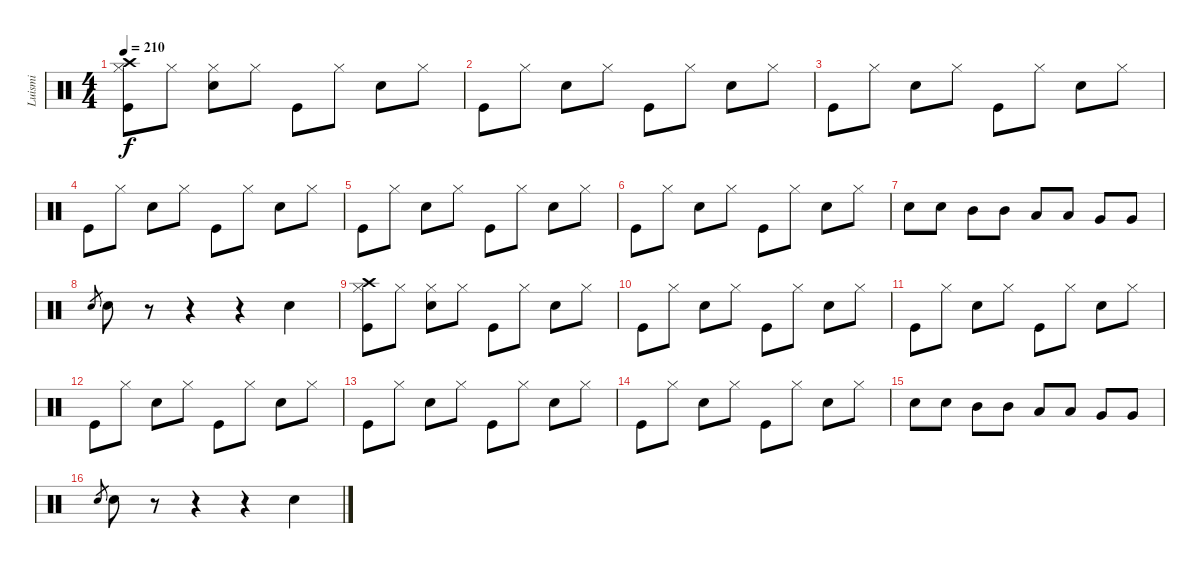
\track ("Luismi" "Luismi") {instrument percussion}
\staff {score}
\articulation defaults
\ts (4 4)
\tempo 210
\clef neutral
\ks c
("Kick (hit)" "Crash high (hit)" "Hi-Hat (closed)").8{dy f} "Hi-Hat (closed)".8 ("Snare (hit) 2" "Hi-Hat (closed)").8 "Hi-Hat (closed)".8 "Kick (hit)".8 "Hi-Hat (closed)".8 "Snare (hit) 2".8 "Hi-Hat (closed)".8 |
"Kick (hit)".8 "Hi-Hat (closed)".8 "Snare (hit) 2".8 "Hi-Hat (closed)".8 "Kick (hit)".8 "Hi-Hat (closed)".8 "Snare (hit) 2".8 "Hi-Hat (closed)".8 |
"Kick (hit)".8 "Hi-Hat (closed)".8 "Snare (hit) 2".8 "Hi-Hat (closed)".8 "Kick (hit)".8 "Hi-Hat (closed)".8 "Snare (hit) 2".8 "Hi-Hat (closed)".8 |
"Kick (hit)".8 "Hi-Hat (closed)".8 "Snare (hit) 2".8 "Hi-Hat (closed)".8 "Kick (hit)".8 "Hi-Hat (closed)".8 "Snare (hit) 2".8 "Hi-Hat (closed)".8 |
"Kick (hit)".8 "Hi-Hat (closed)".8 "Snare (hit) 2".8 "Hi-Hat (closed)".8 "Kick (hit)".8 "Hi-Hat (closed)".8 "Snare (hit) 2".8 "Hi-Hat (closed)".8 |
"Kick (hit)".8 "Hi-Hat (closed)".8 "Snare (hit) 2".8 "Hi-Hat (closed)".8 "Kick (hit)".8 "Hi-Hat (closed)".8 "Snare (hit) 2".8 "Hi-Hat (closed)".8 |
"Snare (hit) 2".8 "Snare (hit) 2".8 "Mid Tom (hit)".8 "Mid Tom (hit)".8 "Low Tom (hit)".8 "Low Tom (hit)".8 "Very Low Tom (hit)".8 "Very Low Tom (hit)".8 |
"Snare (hit) 2".8{gr} "Snare (hit) 2".8 r.8 r.4 r.4 "Snare (hit) 2".4 |
("Kick (hit)" "Crash high (hit)" "Hi-Hat (closed)").8 "Hi-Hat (closed)".8 ("Snare (hit) 2" "Hi-Hat (closed)").8 "Hi-Hat (closed)".8 "Kick (hit)".8 "Hi-Hat (closed)".8 "Snare (hit) 2".8 "Hi-Hat (closed)".8 |
"Kick (hit)".8 "Hi-Hat (closed)".8 "Snare (hit) 2".8 "Hi-Hat (closed)".8 "Kick (hit)".8 "Hi-Hat (closed)".8 "Snare (hit) 2".8 "Hi-Hat (closed)".8 |
"Kick (hit)".8 "Hi-Hat (closed)".8 "Snare (hit) 2".8 "Hi-Hat (closed)".8 "Kick (hit)".8 "Hi-Hat (closed)".8 "Snare (hit) 2".8 "Hi-Hat (closed)".8 |
"Kick (hit)".8 "Hi-Hat (closed)".8 "Snare (hit) 2".8 "Hi-Hat (closed)".8 "Kick (hit)".8 "Hi-Hat (closed)".8 "Snare (hit) 2".8 "Hi-Hat (closed)".8 |
"Kick (hit)".8 "Hi-Hat (closed)".8 "Snare (hit) 2".8 "Hi-Hat (closed)".8 "Kick (hit)".8 "Hi-Hat (closed)".8 "Snare (hit) 2".8 "Hi-Hat (closed)".8 |
"Kick (hit)".8 "Hi-Hat (closed)".8 "Snare (hit) 2".8 "Hi-Hat (closed)".8 "Kick (hit)".8 "Hi-Hat (closed)".8 "Snare (hit) 2".8 "Hi-Hat (closed)".8 |
"Snare (hit) 2".8 "Snare (hit) 2".8 "Mid Tom (hit)".8 "Mid Tom (hit)".8 "Low Tom (hit)".8 "Low Tom (hit)".8 "Very Low Tom (hit)".8 "Very Low Tom (hit)".8 |
"Snare (hit) 2".8{gr} "Snare (hit) 2".8 r.8 r.4 r.4 "Snare (hit) 2".4
